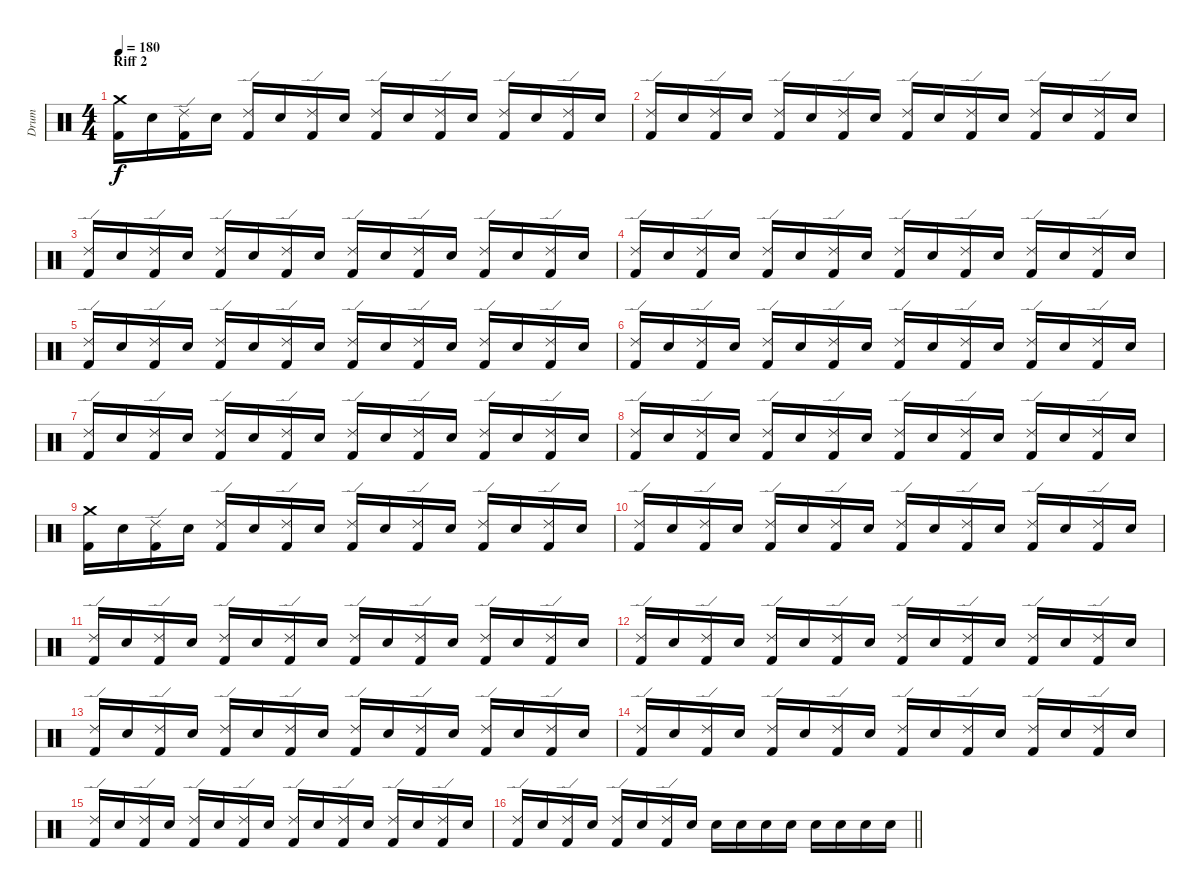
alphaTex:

\track ("Drum" "Drum") {instrument percussion}
\staff {score}
\articulation defaults
\ts (4 4)
\section ("" "Riff 2")
\tempo 180
\clef neutral
\ks c
("Crash medium (hit)" "Kick (hit) 2").16{dy f} "Electric Snare (hit)".16 ("Ride (edge) 2" "Kick (hit) 2").16 "Electric Snare (hit)".16 ("Ride (edge) 2" "Kick (hit) 2").16 "Electric Snare (hit)".16 ("Ride (edge) 2" "Kick (hit) 2").16 "Electric Snare (hit)".16 ("Ride (edge) 2" "Kick (hit) 2").16 "Electric Snare (hit)".16 ("Ride (edge) 2" "Kick (hit) 2").16 "Electric Snare (hit)".16 ("Ride (edge) 2" "Kick (hit) 2").16 "Electric Snare (hit)".16 ("Ride (edge) 2" "Kick (hit) 2").16 "Electric Snare (hit)".16 |
("Ride (edge) 2" "Kick (hit) 2").16 "Electric Snare (hit)".16 ("Ride (edge) 2" "Kick (hit) 2").16 "Electric Snare (hit)".16 ("Ride (edge) 2" "Kick (hit) 2").16 "Electric Snare (hit)".16 ("Ride (edge) 2" "Kick (hit) 2").16 "Electric Snare (hit)".16 ("Ride (edge) 2" "Kick (hit) 2").16 "Electric Snare (hit)".16 ("Ride (edge) 2" "Kick (hit) 2").16 "Electric Snare (hit)".16 ("Ride (edge) 2" "Kick (hit) 2").16 "Electric Snare (hit)".16 ("Ride (edge) 2" "Kick (hit) 2").16 "Electric Snare (hit)".16 |
("Ride (edge) 2" "Kick (hit) 2").16 "Electric Snare (hit)".16 ("Ride (edge) 2" "Kick (hit) 2").16 "Electric Snare (hit)".16 ("Ride (edge) 2" "Kick (hit) 2").16 "Electric Snare (hit)".16 ("Ride (edge) 2" "Kick (hit) 2").16 "Electric Snare (hit)".16 ("Ride (edge) 2" "Kick (hit) 2").16 "Electric Snare (hit)".16 ("Ride (edge) 2" "Kick (hit) 2").16 "Electric Snare (hit)".16 ("Ride (edge) 2" "Kick (hit) 2").16 "Electric Snare (hit)".16 ("Ride (edge) 2" "Kick (hit) 2").16 "Electric Snare (hit)".16 |
("Ride (edge) 2" "Kick (hit) 2").16 "Electric Snare (hit)".16 ("Ride (edge) 2" "Kick (hit) 2").16 "Electric Snare (hit)".16 ("Ride (edge) 2" "Kick (hit) 2").16 "Electric Snare (hit)".16 ("Ride (edge) 2" "Kick (hit) 2").16 "Electric Snare (hit)".16 ("Ride (edge) 2" "Kick (hit) 2").16 "Electric Snare (hit)".16 ("Ride (edge) 2" "Kick (hit) 2").16 "Electric Snare (hit)".16 ("Ride (edge) 2" "Kick (hit) 2").16 "Electric Snare (hit)".16 ("Ride (edge) 2" "Kick (hit) 2").16 "Electric Snare (hit)".16 |
("Ride (edge) 2" "Kick (hit) 2").16 "Electric Snare (hit)".16 ("Ride (edge) 2" "Kick (hit) 2").16 "Electric Snare (hit)".16 ("Ride (edge) 2" "Kick (hit) 2").16 "Electric Snare (hit)".16 ("Ride (edge) 2" "Kick (hit) 2").16 "Electric Snare (hit)".16 ("Ride (edge) 2" "Kick (hit) 2").16 "Electric Snare (hit)".16 ("Ride (edge) 2" "Kick (hit) 2").16 "Electric Snare (hit)".16 ("Ride (edge) 2" "Kick (hit) 2").16 "Electric Snare (hit)".16 ("Ride (edge) 2" "Kick (hit) 2").16 "Electric Snare (hit)".16 |
("Ride (edge) 2" "Kick (hit) 2").16 "Electric Snare (hit)".16 ("Ride (edge) 2" "Kick (hit) 2").16 "Electric Snare (hit)".16 ("Ride (edge) 2" "Kick (hit) 2").16 "Electric Snare (hit)".16 ("Ride (edge) 2" "Kick (hit) 2").16 "Electric Snare (hit)".16 ("Ride (edge) 2" "Kick (hit) 2").16 "Electric Snare (hit)".16 ("Ride (edge) 2" "Kick (hit) 2").16 "Electric Snare (hit)".16 ("Ride (edge) 2" "Kick (hit) 2").16 "Electric Snare (hit)".16 ("Ride (edge) 2" "Kick (hit) 2").16 "Electric Snare (hit)".16 |
("Ride (edge) 2" "Kick (hit) 2").16 "Electric Snare (hit)".16 ("Ride (edge) 2" "Kick (hit) 2").16 "Electric Snare (hit)".16 ("Ride (edge) 2" "Kick (hit) 2").16 "Electric Snare (hit)".16 ("Ride (edge) 2" "Kick (hit) 2").16 "Electric Snare (hit)".16 ("Ride (edge) 2" "Kick (hit) 2").16 "Electric Snare (hit)".16 ("Ride (edge) 2" "Kick (hit) 2").16 "Electric Snare (hit)".16 ("Ride (edge) 2" "Kick (hit) 2").16 "Electric Snare (hit)".16 ("Ride (edge) 2" "Kick (hit) 2").16 "Electric Snare (hit)".16 |
("Ride (edge) 2" "Kick (hit) 2").16 "Electric Snare (hit)".16 ("Ride (edge) 2" "Kick (hit) 2").16 "Electric Snare (hit)".16 ("Ride (edge) 2" "Kick (hit) 2").16 "Electric Snare (hit)".16 ("Ride (edge) 2" "Kick (hit) 2").16 "Electric Snare (hit)".16 ("Ride (edge) 2" "Kick (hit) 2").16 "Electric Snare (hit)".16 ("Ride (edge) 2" "Kick (hit) 2").16 "Electric Snare (hit)".16 ("Ride (edge) 2" "Kick (hit) 2").16 "Electric Snare (hit)".16 ("Ride (edge) 2" "Kick (hit) 2").16 "Electric Snare (hit)".16 |
("Crash medium (hit)" "Kick (hit) 2").16 "Electric Snare (hit)".16 ("Ride (edge) 2" "Kick (hit) 2").16 "Electric Snare (hit)".16 ("Ride (edge) 2" "Kick (hit) 2").16 "Electric Snare (hit)".16 ("Ride (edge) 2" "Kick (hit) 2").16 "Electric Snare (hit)".16 ("Ride (edge) 2" "Kick (hit) 2").16 "Electric Snare (hit)".16 ("Ride (edge) 2" "Kick (hit) 2").16 "Electric Snare (hit)".16 ("Ride (edge) 2" "Kick (hit) 2").16 "Electric Snare (hit)".16 ("Ride (edge) 2" "Kick (hit) 2").16 "Electric Snare (hit)".16 |
("Ride (edge) 2" "Kick (hit) 2").16 "Electric Snare (hit)".16 ("Ride (edge) 2" "Kick (hit) 2").16 "Electric Snare (hit)".16 ("Ride (edge) 2" "Kick (hit) 2").16 "Electric Snare (hit)".16 ("Ride (edge) 2" "Kick (hit) 2").16 "Electric Snare (hit)".16 ("Ride (edge) 2" "Kick (hit) 2").16 "Electric Snare (hit)".16 ("Ride (edge) 2" "Kick (hit) 2").16 "Electric Snare (hit)".16 ("Ride (edge) 2" "Kick (hit) 2").16 "Electric Snare (hit)".16 ("Ride (edge) 2" "Kick (hit) 2").16 "Electric Snare (hit)".16 |
("Ride (edge) 2" "Kick (hit) 2").16 "Electric Snare (hit)".16 ("Ride (edge) 2" "Kick (hit) 2").16 "Electric Snare (hit)".16 ("Ride (edge) 2" "Kick (hit) 2").16 "Electric Snare (hit)".16 ("Ride (edge) 2" "Kick (hit) 2").16 "Electric Snare (hit)".16 ("Ride (edge) 2" "Kick (hit) 2").16 "Electric Snare (hit)".16 ("Ride (edge) 2" "Kick (hit) 2").16 "Electric Snare (hit)".16 ("Ride (edge) 2" "Kick (hit) 2").16 "Electric Snare (hit)".16 ("Ride (edge) 2" "Kick (hit) 2").16 "Electric Snare (hit)".16 |
("Ride (edge) 2" "Kick (hit) 2").16 "Electric Snare (hit)".16 ("Ride (edge) 2" "Kick (hit) 2").16 "Electric Snare (hit)".16 ("Ride (edge) 2" "Kick (hit) 2").16 "Electric Snare (hit)".16 ("Ride (edge) 2" "Kick (hit) 2").16 "Electric Snare (hit)".16 ("Ride (edge) 2" "Kick (hit) 2").16 "Electric Snare (hit)".16 ("Ride (edge) 2" "Kick (hit) 2").16 "Electric Snare (hit)".16 ("Ride (edge) 2" "Kick (hit) 2").16 "Electric Snare (hit)".16 ("Ride (edge) 2" "Kick (hit) 2").16 "Electric Snare (hit)".16 |
("Ride (edge) 2" "Kick (hit) 2").16 "Electric Snare (hit)".16 ("Ride (edge) 2" "Kick (hit) 2").16 "Electric Snare (hit)".16 ("Ride (edge) 2" "Kick (hit) 2").16 "Electric Snare (hit)".16 ("Ride (edge) 2" "Kick (hit) 2").16 "Electric Snare (hit)".16 ("Ride (edge) 2" "Kick (hit) 2").16 "Electric Snare (hit)".16 ("Ride (edge) 2" "Kick (hit) 2").16 "Electric Snare (hit)".16 ("Ride (edge) 2" "Kick (hit) 2").16 "Electric Snare (hit)".16 ("Ride (edge) 2" "Kick (hit) 2").16 "Electric Snare (hit)".16 |
("Ride (edge) 2" "Kick (hit) 2").16 "Electric Snare (hit)".16 ("Ride (edge) 2" "Kick (hit) 2").16 "Electric Snare (hit)".16 ("Ride (edge) 2" "Kick (hit) 2").16 "Electric Snare (hit)".16 ("Ride (edge) 2" "Kick (hit) 2").16 "Electric Snare (hit)".16 ("Ride (edge) 2" "Kick (hit) 2").16 "Electric Snare (hit)".16 ("Ride (edge) 2" "Kick (hit) 2").16 "Electric Snare (hit)".16 ("Ride (edge) 2" "Kick (hit) 2").16 "Electric Snare (hit)".16 ("Ride (edge) 2" "Kick (hit) 2").16 "Electric Snare (hit)".16 |
("Ride (edge) 2" "Kick (hit) 2").16 "Electric Snare (hit)".16 ("Ride (edge) 2" "Kick (hit) 2").16 "Electric Snare (hit)".16 ("Ride (edge) 2" "Kick (hit) 2").16 "Electric Snare (hit)".16 ("Ride (edge) 2" "Kick (hit) 2").16 "Electric Snare (hit)".16 ("Ride (edge) 2" "Kick (hit) 2").16 "Electric Snare (hit)".16 ("Ride (edge) 2" "Kick (hit) 2").16 "Electric Snare (hit)".16 ("Ride (edge) 2" "Kick (hit) 2").16 "Electric Snare (hit)".16 ("Ride (edge) 2" "Kick (hit) 2").16 "Electric Snare (hit)".16 |
\barLineRight lightlight
("Ride (edge) 2" "Kick (hit) 2").16 "Electric Snare (hit)".16 ("Ride (edge) 2" "Kick (hit) 2").16 "Electric Snare (hit)".16 ("Ride (edge) 2" "Kick (hit) 2").16 "Electric Snare (hit)".16 ("Ride (edge) 2" "Kick (hit) 2").16 "Electric Snare (hit)".16 "Electric Snare (hit)".16 "Electric Snare (hit)".16 "Electric Snare (hit)".16 "Electric Snare (hit)".16 "Electric Snare (hit)".16 "Electric Snare (hit)".16 "Electric Snare (hit)".16 "Electric Snare (hit)".16
